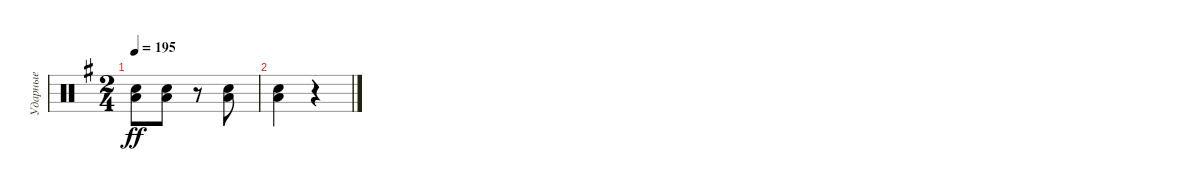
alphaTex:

\track ("Ударные" "Ударные") {instrument percussion}
\staff {score}
\articulation defaults
\ts (2 4)
\tempo 195
\clef neutral
\ks eminor
("Snare (hit) 2" "Low Floor Tom (hit)").8{dy ff} ("Snare (hit) 2" "Low Floor Tom (hit)").8 r.8 ("Snare (hit) 2" "Low Floor Tom (hit)").8 |
("Snare (hit) 2" "Low Floor Tom (hit)").4 r.4
